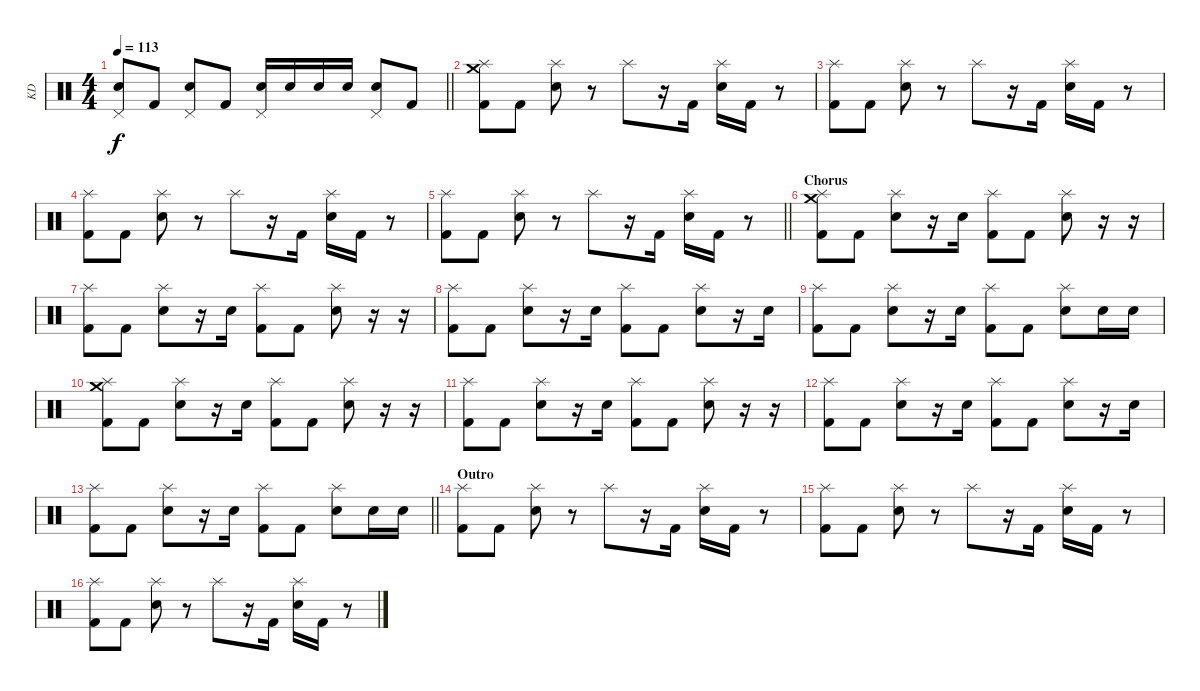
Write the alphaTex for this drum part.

\track ("KD" "KD") {instrument percussion}
\staff {score}
\articulation defaults
\ts (4 4)
\tempo 113
\clef neutral
\barLineRight lightlight
\ks c
("Electric Snare (hit)" "Pedal Hi-Hat (hit)").8{dy f} "Kick (hit) 2".8 ("Electric Snare (hit)" "Pedal Hi-Hat (hit)").8 "Kick (hit) 2".8 ("Electric Snare (hit)" "Pedal Hi-Hat (hit)").16 "Electric Snare (hit)".16 "Electric Snare (hit)".16 "Electric Snare (hit)".16 ("Electric Snare (hit)" "Pedal Hi-Hat (hit)").8 "Kick (hit) 2".8 |
("Crash medium (hit)" "Kick (hit) 2" "Splash (hit)").8 "Kick (hit) 2".8 ("Electric Snare (hit)" "Splash (hit)").8 r.8 "Splash (hit)".8 r.16 "Kick (hit) 2".16 ("Electric Snare (hit)" "Splash (hit)").16 "Kick (hit) 2".16 r.8 |
("Kick (hit) 2" "Splash (hit)").8 "Kick (hit) 2".8 ("Electric Snare (hit)" "Splash (hit)").8 r.8 "Splash (hit)".8 r.16 "Kick (hit) 2".16 ("Electric Snare (hit)" "Splash (hit)").16 "Kick (hit) 2".16 r.8 |
("Kick (hit) 2" "Splash (hit)").8 "Kick (hit) 2".8 ("Electric Snare (hit)" "Splash (hit)").8 r.8 "Splash (hit)".8 r.16 "Kick (hit) 2".16 ("Electric Snare (hit)" "Splash (hit)").16 "Kick (hit) 2".16 r.8 |
\barLineRight lightlight
("Kick (hit) 2" "Splash (hit)").8 "Kick (hit) 2".8 ("Electric Snare (hit)" "Splash (hit)").8 r.8 "Splash (hit)".8 r.16 "Kick (hit) 2".16 ("Electric Snare (hit)" "Splash (hit)").16 "Kick (hit) 2".16 r.8 |
\section ("" "Chorus")
("Kick (hit) 2" "Crash medium (hit)" "Splash (hit)").8 "Kick (hit) 2".8 ("Electric Snare (hit)" "Splash (hit)").8 r.16 "Electric Snare (hit)".16 ("Kick (hit) 2" "Splash (hit)").8 "Kick (hit) 2".8 ("Electric Snare (hit)" "Splash (hit)").8 r.16 r.16 |
("Kick (hit) 2" "Splash (hit)").8 "Kick (hit) 2".8 ("Electric Snare (hit)" "Splash (hit)").8 r.16 "Electric Snare (hit)".16 ("Kick (hit) 2" "Splash (hit)").8 "Kick (hit) 2".8 ("Electric Snare (hit)" "Splash (hit)").8 r.16 r.16 |
("Kick (hit) 2" "Splash (hit)").8 "Kick (hit) 2".8 ("Electric Snare (hit)" "Splash (hit)").8 r.16 "Electric Snare (hit)".16 ("Kick (hit) 2" "Splash (hit)").8 "Kick (hit) 2".8 ("Electric Snare (hit)" "Splash (hit)").8 r.16 "Electric Snare (hit)".16 |
("Kick (hit) 2" "Splash (hit)").8 "Kick (hit) 2".8 ("Electric Snare (hit)" "Splash (hit)").8 r.16 "Electric Snare (hit)".16 ("Kick (hit) 2" "Splash (hit)").8 "Kick (hit) 2".8 ("Electric Snare (hit)" "Splash (hit)").8 "Electric Snare (hit)".16 "Electric Snare (hit)".16 |
("Kick (hit) 2" "Crash medium (hit)" "Splash (hit)").8 "Kick (hit) 2".8 ("Electric Snare (hit)" "Splash (hit)").8 r.16 "Electric Snare (hit)".16 ("Kick (hit) 2" "Splash (hit)").8 "Kick (hit) 2".8 ("Electric Snare (hit)" "Splash (hit)").8 r.16 r.16 |
("Kick (hit) 2" "Splash (hit)").8 "Kick (hit) 2".8 ("Electric Snare (hit)" "Splash (hit)").8 r.16 "Electric Snare (hit)".16 ("Kick (hit) 2" "Splash (hit)").8 "Kick (hit) 2".8 ("Electric Snare (hit)" "Splash (hit)").8 r.16 r.16 |
("Kick (hit) 2" "Splash (hit)").8 "Kick (hit) 2".8 ("Electric Snare (hit)" "Splash (hit)").8 r.16 "Electric Snare (hit)".16 ("Kick (hit) 2" "Splash (hit)").8 "Kick (hit) 2".8 ("Electric Snare (hit)" "Splash (hit)").8 r.16 "Electric Snare (hit)".16 |
\barLineRight lightlight
("Kick (hit) 2" "Splash (hit)").8 "Kick (hit) 2".8 ("Electric Snare (hit)" "Splash (hit)").8 r.16 "Electric Snare (hit)".16 ("Kick (hit) 2" "Splash (hit)").8 "Kick (hit) 2".8 ("Electric Snare (hit)" "Splash (hit)").8 "Electric Snare (hit)".16 "Electric Snare (hit)".16 |
\section ("" "Outro")
("Kick (hit) 2" "Splash (hit)").8 "Kick (hit) 2".8 ("Electric Snare (hit)" "Splash (hit)").8 r.8 "Splash (hit)".8 r.16 "Kick (hit) 2".16 ("Electric Snare (hit)" "Splash (hit)").16 "Kick (hit) 2".16 r.8 |
("Kick (hit) 2" "Splash (hit)").8 "Kick (hit) 2".8 ("Electric Snare (hit)" "Splash (hit)").8 r.8 "Splash (hit)".8 r.16 "Kick (hit) 2".16 ("Electric Snare (hit)" "Splash (hit)").16 "Kick (hit) 2".16 r.8 |
("Kick (hit) 2" "Splash (hit)").8 "Kick (hit) 2".8 ("Electric Snare (hit)" "Splash (hit)").8 r.8 "Splash (hit)".8 r.16 "Kick (hit) 2".16 ("Electric Snare (hit)" "Splash (hit)").16 "Kick (hit) 2".16 r.8
